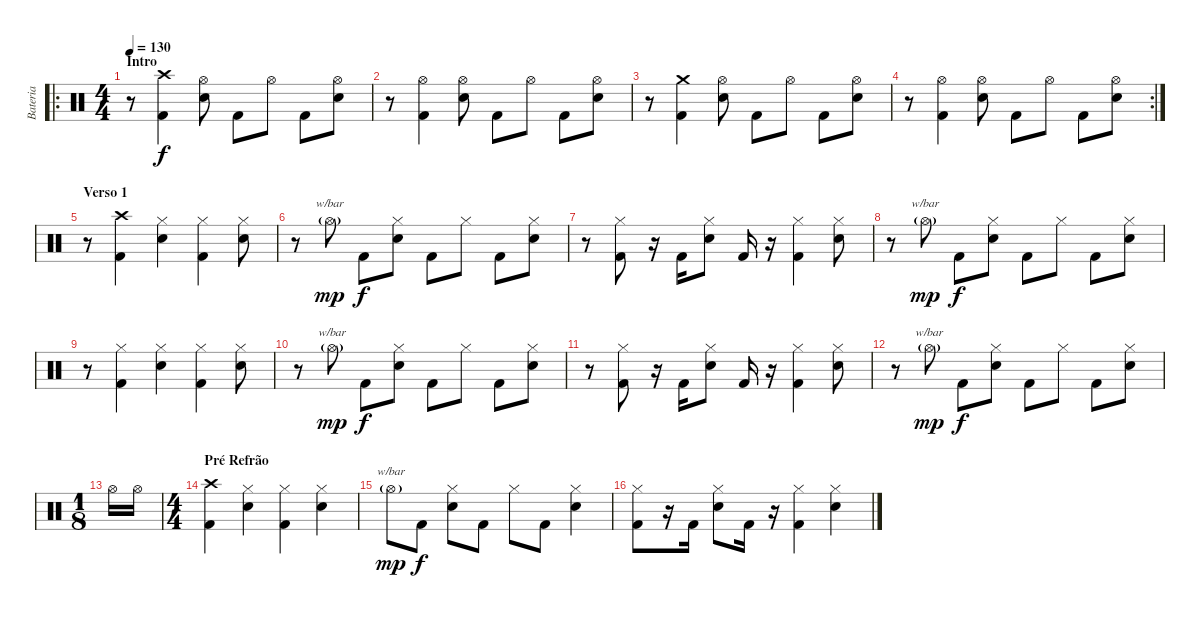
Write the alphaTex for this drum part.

\track ("Bateria" "Bateria") {instrument percussion}
\staff {score}
\articulation defaults
\ro
\ts (4 4)
\section ("" "Intro")
\tempo 130
\clef neutral
\ks c
r.8{dy f} ("Crash high (hit)" "Kick (hit) 2").4 ("Hi-Hat (open)" "Electric Snare (hit)").8 "Kick (hit) 2".8 "Hi-Hat (open)".8 "Kick (hit) 2".8 ("Hi-Hat (open)" "Electric Snare (hit)").8 |
r.8 ("Hi-Hat (open)" "Kick (hit) 2").4 ("Hi-Hat (open)" "Electric Snare (hit)").8 "Kick (hit) 2".8 "Hi-Hat (open)".8 "Kick (hit) 2".8 ("Hi-Hat (open)" "Electric Snare (hit)").8 |
r.8 ("Crash medium (hit)" "Kick (hit) 2").4 ("Hi-Hat (open)" "Electric Snare (hit)").8 "Kick (hit) 2".8 "Hi-Hat (open)".8 "Kick (hit) 2".8 ("Hi-Hat (open)" "Electric Snare (hit)").8 |
\rc 2
r.8 ("Hi-Hat (open)" "Kick (hit) 2").4 ("Hi-Hat (open)" "Electric Snare (hit)").8 "Kick (hit) 2".8 "Hi-Hat (open)".8 "Kick (hit) 2".8 ("Hi-Hat (open)" "Electric Snare (hit)").8 |
\section ("" "Verso 1")
r.8 ("Crash high (hit)" "Kick (hit) 2").4 ("Hi-Hat (closed)" "Electric Snare (hit)").4 ("Hi-Hat (closed)" "Kick (hit) 2").4 ("Hi-Hat (closed)" "Electric Snare (hit)").8 |
r.8 "Hi-Hat (open)"{g}.8{tbe (custom default 0 0 45 2 60 2) dy mp} "Kick (hit) 2".8{dy f} ("Hi-Hat (closed)" "Electric Snare (hit)").8 "Kick (hit) 2".8 "Hi-Hat (closed)".8 "Kick (hit) 2".8 ("Hi-Hat (closed)" "Electric Snare (hit)").8 |
r.8 ("Hi-Hat (closed)" "Kick (hit) 2").8 r.16 "Kick (hit) 2".16 ("Hi-Hat (closed)" "Electric Snare (hit)").8 "Kick (hit) 2".16 r.16 ("Hi-Hat (closed)" "Kick (hit) 2").4 ("Hi-Hat (closed)" "Electric Snare (hit)").8 |
r.8 "Hi-Hat (open)"{g}.8{tbe (custom default 0 0 45 2 60 2) dy mp} "Kick (hit) 2".8{dy f} ("Hi-Hat (closed)" "Electric Snare (hit)").8 "Kick (hit) 2".8 "Hi-Hat (closed)".8 "Kick (hit) 2".8 ("Hi-Hat (closed)" "Electric Snare (hit)").8 |
r.8 ("Hi-Hat (closed)" "Kick (hit) 2").4 ("Hi-Hat (closed)" "Electric Snare (hit)").4 ("Hi-Hat (closed)" "Kick (hit) 2").4 ("Hi-Hat (closed)" "Electric Snare (hit)").8 |
r.8 "Hi-Hat (open)"{g}.8{tbe (custom default 0 0 45 2 60 2) dy mp} "Kick (hit) 2".8{dy f} ("Hi-Hat (closed)" "Electric Snare (hit)").8 "Kick (hit) 2".8 "Hi-Hat (closed)".8 "Kick (hit) 2".8 ("Hi-Hat (closed)" "Electric Snare (hit)").8 |
r.8 ("Hi-Hat (closed)" "Kick (hit) 2").8 r.16 "Kick (hit) 2".16 ("Hi-Hat (closed)" "Electric Snare (hit)").8 "Kick (hit) 2".16 r.16 ("Hi-Hat (closed)" "Kick (hit) 2").4 ("Hi-Hat (closed)" "Electric Snare (hit)").8 |
r.8 "Hi-Hat (open)"{g}.8{tbe (custom default 0 0 45 2 60 2) dy mp} "Kick (hit) 2".8{dy f} ("Hi-Hat (closed)" "Electric Snare (hit)").8 "Kick (hit) 2".8 "Hi-Hat (closed)".8 "Kick (hit) 2".8 ("Hi-Hat (closed)" "Electric Snare (hit)").8 |
\ts (1 8)
"Hi-Hat (open)".16 "Hi-Hat (open)".16 |
\ts (4 4)
\section ("" "Pré Refrão")
("Crash high (hit)" "Kick (hit) 2").4 ("Hi-Hat (closed)" "Electric Snare (hit)").4 ("Hi-Hat (closed)" "Kick (hit) 2").4 ("Hi-Hat (closed)" "Electric Snare (hit)").4 |
"Hi-Hat (open)"{g}.8{tbe (custom default 0 0 45 2 60 2) dy mp} "Kick (hit) 2".8{dy f} ("Hi-Hat (closed)" "Electric Snare (hit)").8 "Kick (hit) 2".8 "Hi-Hat (closed)".8 "Kick (hit) 2".8 ("Hi-Hat (closed)" "Electric Snare (hit)").4 |
("Hi-Hat (closed)" "Kick (hit) 2").8 r.16 "Kick (hit) 2".16 ("Hi-Hat (closed)" "Electric Snare (hit)").8 "Kick (hit) 2".16 r.16 ("Hi-Hat (closed)" "Kick (hit) 2").4 ("Hi-Hat (closed)" "Electric Snare (hit)").4
